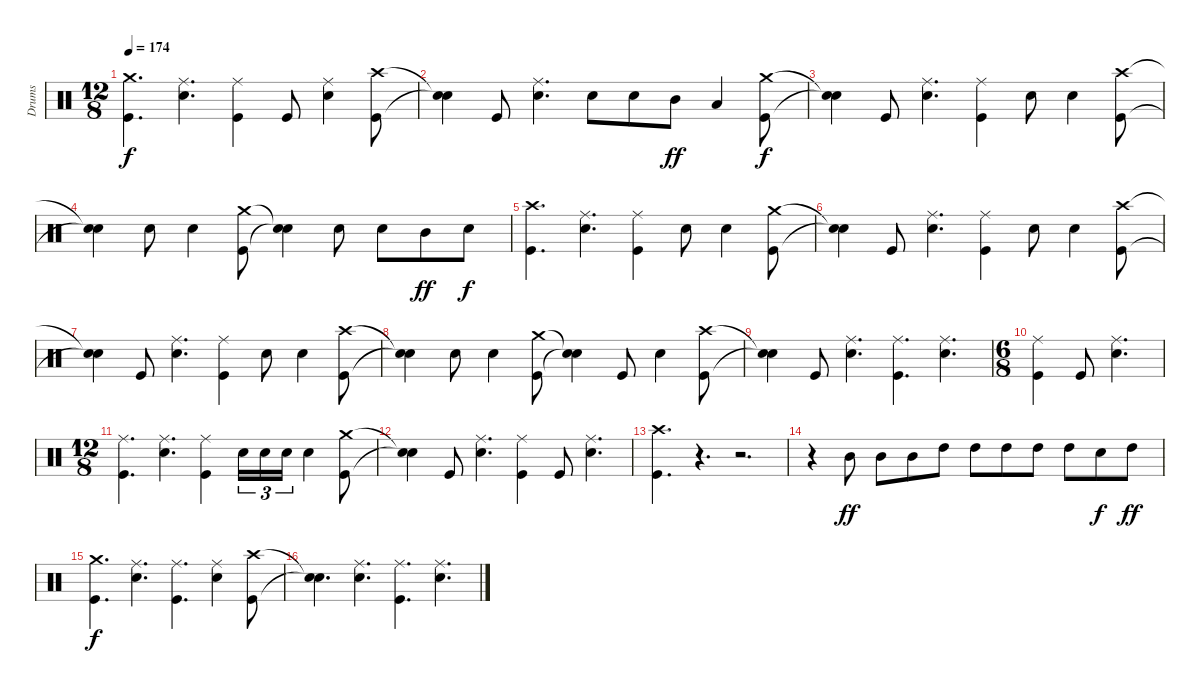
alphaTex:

\track ("Drums" "Drums") {instrument percussion}
\staff {score}
\articulation defaults
\ts (12 8)
\tempo 174
\clef neutral
\ks c
("Crash medium (hit)" "Kick (hit)").4{d dy f} ("Ride (middle)" "Snare (hit) 2").4{d} ("Ride (middle)" "Kick (hit)").4 "Kick (hit)".8 ("Ride (middle)" "Snare (hit) 2").4 ("Crash high (hit)" "Kick (hit)").8 |
("Snare (hit)"{t} "Snare (hit)"{t}).4 "Kick (hit)".8 ("Ride (middle)" "Snare (hit) 2").4{d} "Snare (hit) 2".8 "Snare (hit) 2".8 "Mid Tom (hit)".8{dy ff} "Low Tom (hit)".4 ("Crash medium (hit)" "Kick (hit)").8{dy f} |
("Snare (hit)"{t} "Snare (hit)"{t}).4 "Kick (hit)".8 ("Ride (middle)" "Snare (hit) 2").4{d} ("Ride (middle)" "Kick (hit)").4 "Snare (hit) 2".8 "Snare (hit) 2".4 ("Crash high (hit)" "Kick (hit)").8 |
("Snare (hit)"{t} "Snare (hit)"{t}).4 "Snare (hit) 2".8 "Snare (hit) 2".4 ("Crash medium (hit)" "Kick (hit)").8 ("Snare (hit)"{t} "Snare (hit)"{t}).4 "Snare (hit) 2".8 "Snare (hit) 2".8 "Mid Tom (hit)".8{dy ff} "Snare (hit) 2".8{dy f} |
("Crash high (hit)" "Kick (hit)").4{d} ("Ride (middle)" "Snare (hit) 2").4{d} ("Ride (middle)" "Kick (hit)").4 "Snare (hit) 2".8 "Snare (hit) 2".4 ("Crash medium (hit)" "Kick (hit)").8 |
("Snare (hit)"{t} "Snare (hit)"{t}).4 "Kick (hit)".8 ("Ride (middle)" "Snare (hit) 2").4{d} ("Ride (middle)" "Kick (hit)").4 "Snare (hit) 2".8 "Snare (hit) 2".4 ("Crash high (hit)" "Kick (hit)").8 |
("Snare (hit)"{t} "Snare (hit)"{t}).4 "Kick (hit)".8 ("Ride (middle)" "Snare (hit) 2").4{d} ("Ride (middle)" "Kick (hit)").4 "Snare (hit) 2".8 "Snare (hit) 2".4 ("Crash high (hit)" "Kick (hit)").8 |
("Snare (hit)"{t} "Snare (hit)"{t}).4 "Snare (hit) 2".8 "Snare (hit) 2".4 ("Crash medium (hit)" "Kick (hit)").8 ("Snare (hit)"{t} "Snare (hit)"{t}).4 "Kick (hit)".8 "Snare (hit) 2".4 ("Crash high (hit)" "Kick (hit)").8 |
("Snare (hit)"{t} "Snare (hit)"{t}).4 "Kick (hit)".8 ("Ride (middle)" "Snare (hit) 2").4{d} ("Ride (middle)" "Kick (hit)").4{d} ("Ride (middle)" "Snare (hit) 2").4{d} |
\ts (6 8)
("Ride (middle)" "Kick (hit)").4 "Kick (hit)".8 ("Ride (middle)" "Snare (hit) 2").4{d} |
\ts (12 8)
("Ride (middle)" "Kick (hit)").4{d} ("Ride (middle)" "Snare (hit) 2").4{d} ("Ride (middle)" "Kick (hit)").4 "Snare (hit) 2".16{tu (3 2)} "Snare (hit) 2".16{tu (3 2)} "Snare (hit) 2".16{tu (3 2)} "Snare (hit) 2".4 ("Crash medium (hit)" "Kick (hit)").8 |
("Snare (hit)"{t} "Snare (hit)"{t}).4 "Kick (hit)".8 ("Ride (middle)" "Snare (hit) 2").4{d} ("Ride (middle)" "Kick (hit)").4 "Kick (hit)".8 ("Ride (middle)" "Snare (hit) 2").4{d} |
("Crash high (hit)" "Kick (hit)").4{d} r.4{d} r.2{d} |
r.4 "Mid Tom (hit)".8{dy ff} "Mid Tom (hit)".8 "Mid Tom (hit)".8 "High Tom (hit)".8 "High Tom (hit)".8 "High Tom (hit)".8 "High Tom (hit)".8 "High Tom (hit)".8 "Snare (hit) 2".8{dy f} "High Tom (hit)".8{dy ff} |
("Crash medium (hit)" "Kick (hit)").4{d dy f} ("Ride (middle)" "Snare (hit) 2").4{d} ("Ride (middle)" "Kick (hit)").4{d} ("Ride (middle)" "Snare (hit) 2").4 ("Crash high (hit)" "Kick (hit)").8 |
("Snare (hit)"{t} "Snare (hit)"{t}).4{d} ("Ride (middle)" "Snare (hit) 2").4{d} ("Ride (middle)" "Kick (hit)").4{d} ("Ride (middle)" "Snare (hit) 2").4{d}
